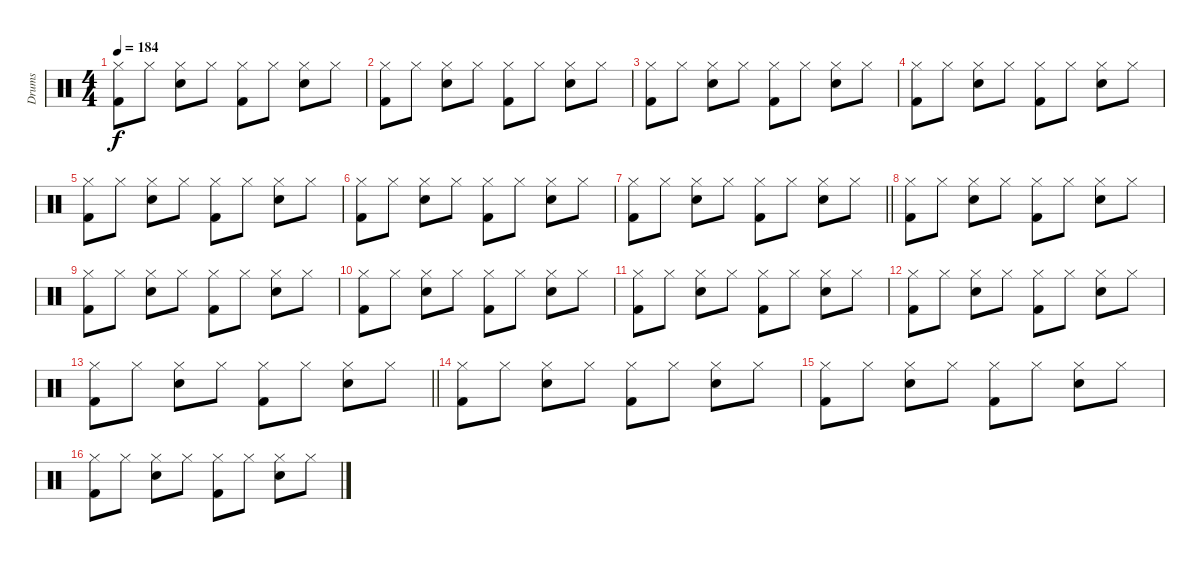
\track ("Drums" "Drums") {instrument percussion}
\staff {score}
\articulation defaults
\ts (4 4)
\tempo 184
\clef neutral
\ks c
("Hi-Hat (closed)" "Kick (hit) 2").8{dy f} "Hi-Hat (closed)".8 ("Hi-Hat (closed)" "Snare (hit) 2").8 "Hi-Hat (closed)".8 ("Hi-Hat (closed)" "Kick (hit) 2").8 "Hi-Hat (closed)".8 ("Hi-Hat (closed)" "Snare (hit) 2").8 "Hi-Hat (closed)".8 |
("Hi-Hat (closed)" "Kick (hit) 2").8 "Hi-Hat (closed)".8 ("Hi-Hat (closed)" "Snare (hit) 2").8 "Hi-Hat (closed)".8 ("Hi-Hat (closed)" "Kick (hit) 2").8 "Hi-Hat (closed)".8 ("Hi-Hat (closed)" "Snare (hit) 2").8 "Hi-Hat (closed)".8 |
("Hi-Hat (closed)" "Kick (hit) 2").8 "Hi-Hat (closed)".8 ("Hi-Hat (closed)" "Snare (hit) 2").8 "Hi-Hat (closed)".8 ("Hi-Hat (closed)" "Kick (hit) 2").8 "Hi-Hat (closed)".8 ("Hi-Hat (closed)" "Snare (hit) 2").8 "Hi-Hat (closed)".8 |
("Hi-Hat (closed)" "Kick (hit) 2").8 "Hi-Hat (closed)".8 ("Hi-Hat (closed)" "Snare (hit) 2").8 "Hi-Hat (closed)".8 ("Hi-Hat (closed)" "Kick (hit) 2").8 "Hi-Hat (closed)".8 ("Hi-Hat (closed)" "Snare (hit) 2").8 "Hi-Hat (closed)".8 |
("Hi-Hat (closed)" "Kick (hit) 2").8 "Hi-Hat (closed)".8 ("Hi-Hat (closed)" "Snare (hit) 2").8 "Hi-Hat (closed)".8 ("Hi-Hat (closed)" "Kick (hit) 2").8 "Hi-Hat (closed)".8 ("Hi-Hat (closed)" "Snare (hit) 2").8 "Hi-Hat (closed)".8 |
("Hi-Hat (closed)" "Kick (hit) 2").8 "Hi-Hat (closed)".8 ("Hi-Hat (closed)" "Snare (hit) 2").8 "Hi-Hat (closed)".8 ("Hi-Hat (closed)" "Kick (hit) 2").8 "Hi-Hat (closed)".8 ("Hi-Hat (closed)" "Snare (hit) 2").8 "Hi-Hat (closed)".8 |
\barLineRight lightlight
("Hi-Hat (closed)" "Kick (hit) 2").8 "Hi-Hat (closed)".8 ("Hi-Hat (closed)" "Snare (hit) 2").8 "Hi-Hat (closed)".8 ("Hi-Hat (closed)" "Kick (hit) 2").8 "Hi-Hat (closed)".8 ("Hi-Hat (closed)" "Snare (hit) 2").8 "Hi-Hat (closed)".8 |
("Hi-Hat (closed)" "Kick (hit) 2").8 "Hi-Hat (closed)".8 ("Hi-Hat (closed)" "Snare (hit) 2").8 "Hi-Hat (closed)".8 ("Hi-Hat (closed)" "Kick (hit) 2").8 "Hi-Hat (closed)".8 ("Hi-Hat (closed)" "Snare (hit) 2").8 "Hi-Hat (closed)".8 |
("Hi-Hat (closed)" "Kick (hit) 2").8 "Hi-Hat (closed)".8 ("Hi-Hat (closed)" "Snare (hit) 2").8 "Hi-Hat (closed)".8 ("Hi-Hat (closed)" "Kick (hit) 2").8 "Hi-Hat (closed)".8 ("Hi-Hat (closed)" "Snare (hit) 2").8 "Hi-Hat (closed)".8 |
("Hi-Hat (closed)" "Kick (hit) 2").8 "Hi-Hat (closed)".8 ("Hi-Hat (closed)" "Snare (hit) 2").8 "Hi-Hat (closed)".8 ("Hi-Hat (closed)" "Kick (hit) 2").8 "Hi-Hat (closed)".8 ("Hi-Hat (closed)" "Snare (hit) 2").8 "Hi-Hat (closed)".8 |
("Hi-Hat (closed)" "Kick (hit) 2").8 "Hi-Hat (closed)".8 ("Hi-Hat (closed)" "Snare (hit) 2").8 "Hi-Hat (closed)".8 ("Hi-Hat (closed)" "Kick (hit) 2").8 "Hi-Hat (closed)".8 ("Hi-Hat (closed)" "Snare (hit) 2").8 "Hi-Hat (closed)".8 |
("Hi-Hat (closed)" "Kick (hit) 2").8 "Hi-Hat (closed)".8 ("Hi-Hat (closed)" "Snare (hit) 2").8 "Hi-Hat (closed)".8 ("Hi-Hat (closed)" "Kick (hit) 2").8 "Hi-Hat (closed)".8 ("Hi-Hat (closed)" "Snare (hit) 2").8 "Hi-Hat (closed)".8 |
\barLineRight lightlight
("Hi-Hat (closed)" "Kick (hit) 2").8 "Hi-Hat (closed)".8 ("Hi-Hat (closed)" "Snare (hit) 2").8 "Hi-Hat (closed)".8 ("Hi-Hat (closed)" "Kick (hit) 2").8 "Hi-Hat (closed)".8 ("Hi-Hat (closed)" "Snare (hit) 2").8 "Hi-Hat (closed)".8 |
("Hi-Hat (closed)" "Kick (hit) 2").8 "Hi-Hat (closed)".8 ("Hi-Hat (closed)" "Snare (hit) 2").8 "Hi-Hat (closed)".8 ("Hi-Hat (closed)" "Kick (hit) 2").8 "Hi-Hat (closed)".8 ("Hi-Hat (closed)" "Snare (hit) 2").8 "Hi-Hat (closed)".8 |
("Hi-Hat (closed)" "Kick (hit) 2").8 "Hi-Hat (closed)".8 ("Hi-Hat (closed)" "Snare (hit) 2").8 "Hi-Hat (closed)".8 ("Hi-Hat (closed)" "Kick (hit) 2").8 "Hi-Hat (closed)".8 ("Hi-Hat (closed)" "Snare (hit) 2").8 "Hi-Hat (closed)".8 |
("Hi-Hat (closed)" "Kick (hit) 2").8 "Hi-Hat (closed)".8 ("Hi-Hat (closed)" "Snare (hit) 2").8 "Hi-Hat (closed)".8 ("Hi-Hat (closed)" "Kick (hit) 2").8 "Hi-Hat (closed)".8 ("Hi-Hat (closed)" "Snare (hit) 2").8 "Hi-Hat (closed)".8
